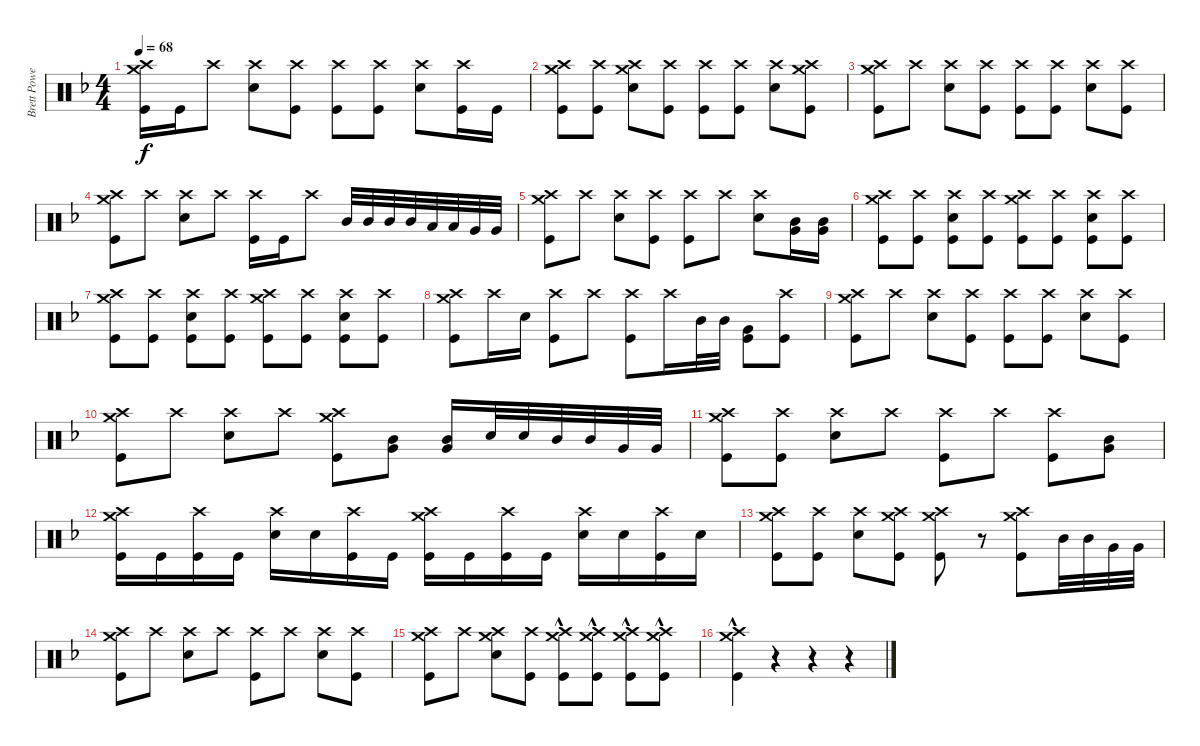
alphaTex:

\track ("Brett Powell" "Brett Powe") {instrument percussion}
\staff {score}
\articulation defaults
\ts (4 4)
\section ("" "")
\tempo 68
\clef neutral
\ks dminor
("Kick (hit)" "Crash high (hit)" "Crash medium (hit)").16{dy f} "Kick (hit)".16 "Crash high (hit)".8 ("Snare (hit) 2" "Crash high (hit)").8 ("Kick (hit)" "Crash high (hit)").8 ("Kick (hit)" "Crash high (hit)").8 ("Kick (hit)" "Crash high (hit)").8 ("Snare (hit) 2" "Crash high (hit)").8 ("Kick (hit)" "Crash high (hit)").16 "Kick (hit)".16 |
("Kick (hit)" "Crash high (hit)" "Crash medium (hit)").8 ("Kick (hit)" "Crash high (hit)").8 ("Snare (hit) 2" "Crash high (hit)" "Crash medium (hit)").8 ("Kick (hit)" "Crash high (hit)").8 ("Kick (hit)" "Crash high (hit)").8 ("Kick (hit)" "Crash high (hit)").8 ("Snare (hit) 2" "Crash high (hit)").8 ("Kick (hit)" "Crash medium (hit)" "Crash high (hit)").8 |
("Crash high (hit)" "Kick (hit)" "Crash medium (hit)").8 "Crash high (hit)".8 ("Snare (hit) 2" "Crash high (hit)").8 ("Kick (hit)" "Crash high (hit)").8 ("Kick (hit)" "Crash high (hit)").8 ("Kick (hit)" "Crash high (hit)").8 ("Snare (hit) 2" "Crash high (hit)").8 ("Kick (hit)" "Crash high (hit)").8 |
("Kick (hit)" "Crash high (hit)" "Crash medium (hit)").8 "Crash high (hit)".8 ("Snare (hit) 2" "Crash high (hit)").8 "Crash high (hit)".8 ("Kick (hit)" "Crash high (hit)").16 "Kick (hit)".16 "Crash high (hit)".8 "Mid Tom (hit)".32 "Mid Tom (hit)".32 "Mid Tom (hit)".32 "Mid Tom (hit)".32 "Low Tom (hit)".32 "Low Tom (hit)".32 "Very Low Tom (hit)".32 "Very Low Tom (hit)".32 |
("Crash high (hit)" "Kick (hit)" "Crash medium (hit)").8 "Crash high (hit)".8 ("Snare (hit) 2" "Crash high (hit)").8 ("Kick (hit)" "Crash high (hit)").8 ("Kick (hit)" "Crash high (hit)").8 "Crash high (hit)".8 ("Snare (hit) 2" "Crash high (hit)").8 ("Mid Tom (hit)" "Very Low Tom (hit)").16 ("Mid Tom (hit)" "Very Low Tom (hit)").16 |
("Kick (hit)" "Crash high (hit)" "Crash medium (hit)").8 ("Kick (hit)" "Crash high (hit)").8 ("Kick (hit)" "Snare (hit) 2" "Crash high (hit)").8 ("Kick (hit)" "Crash high (hit)").8 ("Kick (hit)" "Crash high (hit)" "Crash medium (hit)").8 ("Kick (hit)" "Crash high (hit)").8 ("Kick (hit)" "Snare (hit) 2" "Crash high (hit)").8 ("Kick (hit)" "Crash high (hit)").8 |
("Kick (hit)" "Crash high (hit)" "Crash medium (hit)").8 ("Kick (hit)" "Crash high (hit)").8 ("Kick (hit)" "Snare (hit) 2" "Crash high (hit)").8 ("Kick (hit)" "Crash high (hit)").8 ("Kick (hit)" "Crash high (hit)" "Crash medium (hit)").8 ("Kick (hit)" "Crash high (hit)").8 ("Kick (hit)" "Snare (hit) 2" "Crash high (hit)").8 ("Kick (hit)" "Crash high (hit)").8 |
("Crash high (hit)" "Crash medium (hit)" "Kick (hit)").8 "Crash high (hit)".16 "Snare (hit) 2".16 ("Crash high (hit)" "Kick (hit)").8 "Crash high (hit)".8 ("Crash high (hit)" "Kick (hit)").8 "Crash high (hit)".16 "Mid Tom (hit)".32 "Mid Tom (hit)".32 ("Very Low Tom (hit)" "Kick (hit)").8 ("Kick (hit)" "Crash high (hit)").8 |
("Crash high (hit)" "Kick (hit)" "Crash medium (hit)").8 "Crash high (hit)".8 ("Snare (hit) 2" "Crash high (hit)").8 ("Kick (hit)" "Crash high (hit)").8 ("Kick (hit)" "Crash high (hit)").8 ("Kick (hit)" "Crash high (hit)").8 ("Snare (hit) 2" "Crash high (hit)").8 ("Kick (hit)" "Crash high (hit)").8 |
("Crash high (hit)" "Crash medium (hit)" "Kick (hit)").8 "Crash high (hit)".8 ("Crash high (hit)" "Snare (hit) 2").8 "Crash high (hit)".8 ("Kick (hit)" "Crash high (hit)" "Crash medium (hit)").8 ("Mid Tom (hit)" "Very Low Tom (hit)").8 ("Very Low Tom (hit)" "Mid Tom (hit)").16 "Snare (hit) 2".32 "Snare (hit) 2".32 "Mid Tom (hit)".32 "Mid Tom (hit)".32 "Very Low Tom (hit)".32 "Very Low Tom (hit)".32 |
("Kick (hit)" "Crash high (hit)" "Crash medium (hit)").8 ("Kick (hit)" "Crash high (hit)").8 ("Snare (hit) 2" "Crash high (hit)").8 "Crash high (hit)".8 ("Crash high (hit)" "Kick (hit)").8 "Crash high (hit)".8 ("Crash high (hit)" "Kick (hit)").8 ("Mid Tom (hit)" "Very Low Tom (hit)").8 |
("Kick (hit)" "Crash high (hit)" "Crash medium (hit)").16 "Kick (hit)".16 ("Kick (hit)" "Crash high (hit)").16 "Kick (hit)".16 ("Snare (hit) 2" "Crash high (hit)").16 "Snare (hit) 2".16 ("Kick (hit)" "Crash high (hit)").16 "Kick (hit)".16 ("Kick (hit)" "Crash high (hit)" "Crash medium (hit)").16 "Kick (hit)".16 ("Kick (hit)" "Crash high (hit)").16 "Kick (hit)".16 ("Snare (hit) 2" "Crash high (hit)").16 "Snare (hit) 2".16 ("Kick (hit)" "Crash high (hit)").16 "Snare (hit) 2".16 |
("Kick (hit)" "Crash high (hit)" "Crash medium (hit)").8 ("Kick (hit)" "Crash high (hit)").8 ("Snare (hit) 2" "Crash high (hit)").8 ("Kick (hit)" "Crash high (hit)" "Crash medium (hit)").8 ("Kick (hit)" "Crash high (hit)" "Crash medium (hit)").8 r.8 ("Kick (hit)" "Crash high (hit)" "Crash medium (hit)").8 "Mid Tom (hit)".32 "Mid Tom (hit)".32 "Very Low Tom (hit)".32 "Very Low Tom (hit)".32 |
("Crash high (hit)" "Crash medium (hit)" "Kick (hit)").8 "Crash high (hit)".8 ("Crash high (hit)" "Snare (hit) 2").8 "Crash high (hit)".8 ("Crash high (hit)" "Kick (hit)").8 "Crash high (hit)".8 ("Crash high (hit)" "Snare (hit) 2").8 ("Crash high (hit)" "Kick (hit)").8 |
("Kick (hit)" "Crash high (hit)" "Crash medium (hit)").8 "Crash high (hit)".8 ("Crash high (hit)" "Crash medium (hit)" "Snare (hit) 2").8 ("Crash high (hit)" "Kick (hit)").8 ("Crash high (hit)"{hac} "Kick (hit)" "Crash medium (hit)"{hac}).8 ("Crash high (hit)"{hac} "Kick (hit)" "Crash medium (hit)"{hac}).8 ("Crash high (hit)"{hac} "Kick (hit)" "Crash medium (hit)"{hac}).8 ("Crash high (hit)"{hac} "Kick (hit)" "Crash medium (hit)"{hac}).8 |
("Kick (hit)" "Crash high (hit)" "Crash medium (hit)"{hac}).4 r.4 r.4 r.4
